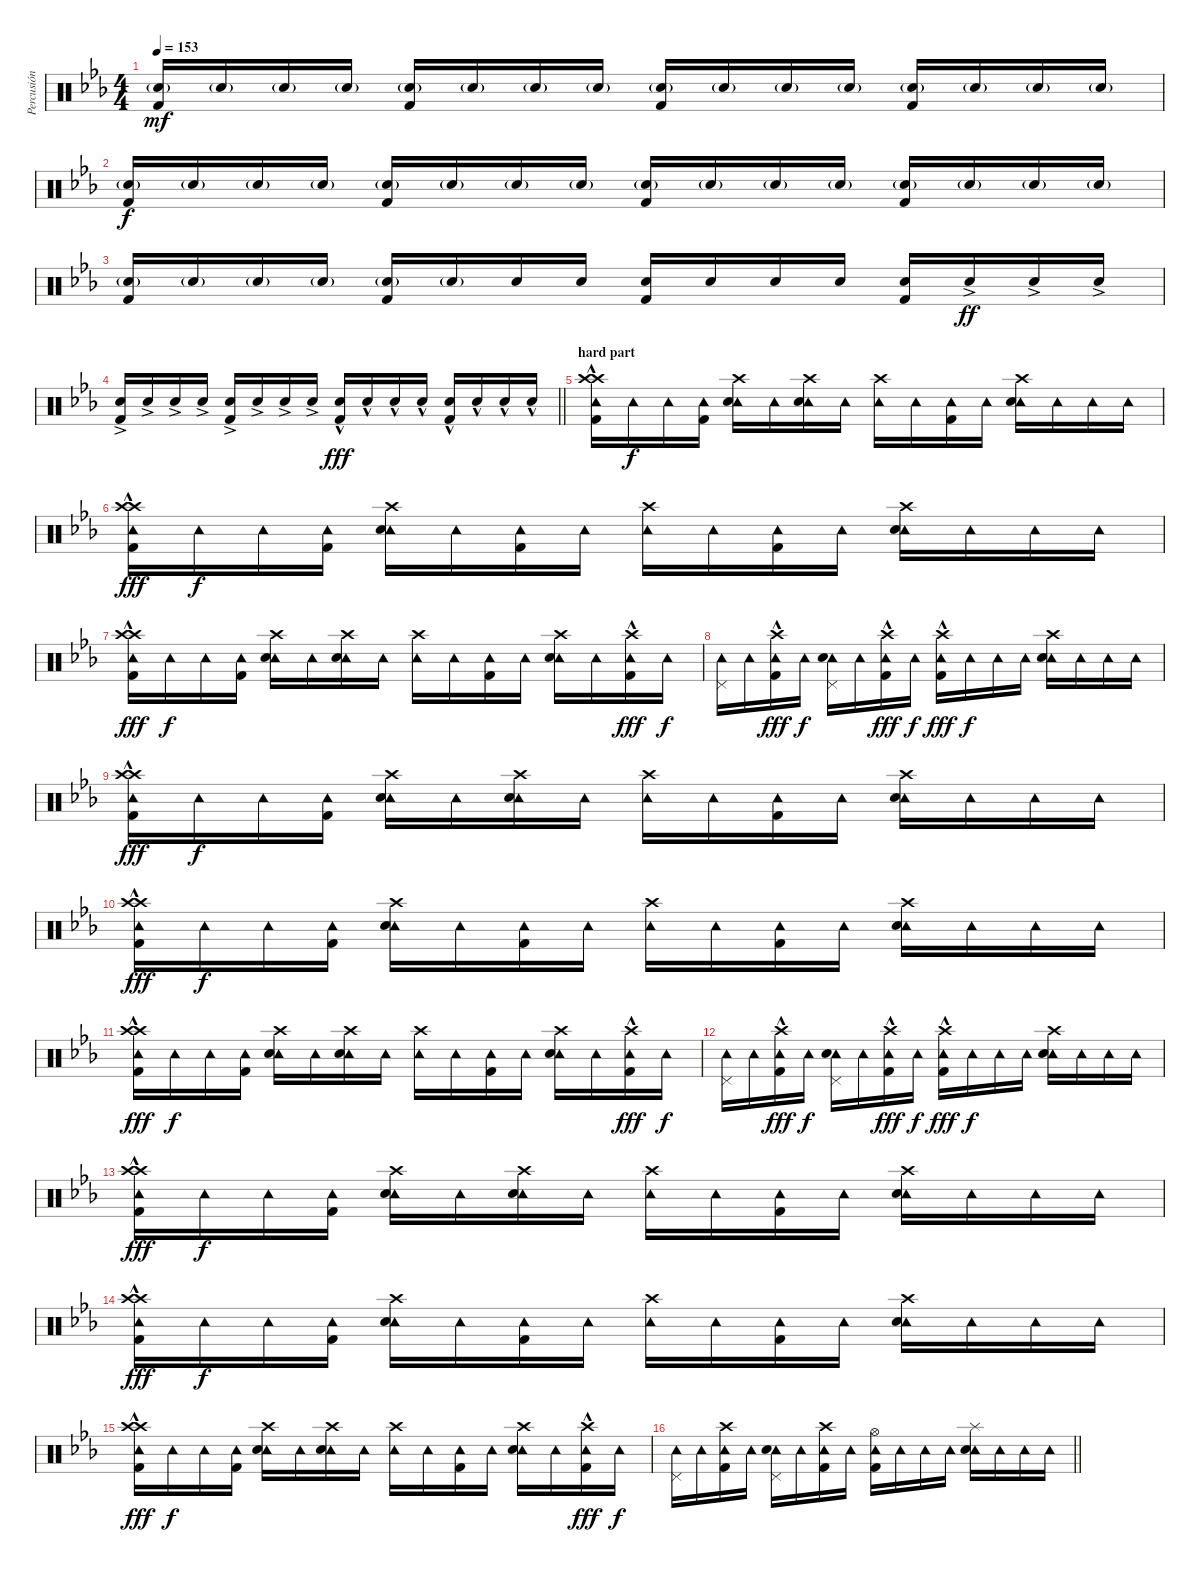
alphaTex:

\track ("Percusión" "Percusión") {instrument percussion}
\staff {score}
\articulation defaults
\ts (4 4)
\tempo 153
\clef neutral
\ks eb
("Snare (hit) 2"{g} "Kick (hit) 2").16{dy mf} "Snare (hit) 2"{g}.16 "Snare (hit) 2"{g}.16 "Snare (hit) 2"{g}.16 ("Snare (hit) 2"{g} "Kick (hit) 2").16 "Snare (hit) 2"{g}.16 "Snare (hit) 2"{g}.16 "Snare (hit) 2"{g}.16 ("Snare (hit) 2"{g} "Kick (hit) 2").16 "Snare (hit) 2"{g}.16 "Snare (hit) 2"{g}.16 "Snare (hit) 2"{g}.16 ("Snare (hit) 2"{g} "Kick (hit) 2").16 "Snare (hit) 2"{g}.16 "Snare (hit) 2"{g}.16 "Snare (hit) 2"{g}.16 |
("Snare (hit) 2"{g} "Kick (hit) 2").16{dy f} "Snare (hit) 2"{g}.16 "Snare (hit) 2"{g}.16 "Snare (hit) 2"{g}.16 ("Snare (hit) 2"{g} "Kick (hit) 2").16 "Snare (hit) 2"{g}.16 "Snare (hit) 2"{g}.16 "Snare (hit) 2"{g}.16 ("Snare (hit) 2"{g} "Kick (hit) 2").16 "Snare (hit) 2"{g}.16 "Snare (hit) 2"{g}.16 "Snare (hit) 2"{g}.16 ("Snare (hit) 2"{g} "Kick (hit) 2").16 "Snare (hit) 2"{g}.16 "Snare (hit) 2"{g}.16 "Snare (hit) 2"{g}.16 |
("Snare (hit) 2"{g} "Kick (hit) 2").16 "Snare (hit) 2"{g}.16 "Snare (hit) 2"{g}.16 "Snare (hit) 2"{g}.16 ("Snare (hit) 2"{g} "Kick (hit) 2").16 "Snare (hit) 2"{g}.16 "Snare (hit) 2".16 "Snare (hit) 2".16 ("Snare (hit) 2" "Kick (hit) 2").16 "Snare (hit) 2".16 "Snare (hit) 2".16 "Snare (hit) 2".16 ("Snare (hit) 2" "Kick (hit) 2").16 "Snare (hit) 2"{ac}.16{dy ff} "Snare (hit) 2"{ac}.16 "Snare (hit) 2"{ac}.16 |
\barLineRight lightlight
("Snare (hit) 2"{ac} "Kick (hit) 2").16 "Snare (hit) 2"{ac}.16 "Snare (hit) 2"{ac}.16 "Snare (hit) 2"{ac}.16 ("Snare (hit) 2"{ac} "Kick (hit) 2").16 "Snare (hit) 2"{ac}.16 "Snare (hit) 2"{ac}.16 "Snare (hit) 2"{ac}.16 ("Snare (hit) 2"{hac} "Kick (hit) 2").16{dy fff} "Snare (hit) 2"{hac}.16 "Snare (hit) 2"{hac}.16 "Snare (hit) 2"{hac}.16 ("Snare (hit) 2"{hac} "Kick (hit) 2").16 "Snare (hit) 2"{hac}.16 "Snare (hit) 2"{hac}.16 "Snare (hit) 2"{hac}.16 |
\section ("" "hard part")
("Tambourine (hit)" "Crash high (hit)"{hac} "Crash high (hit)" "Kick (hit) 2").16 "Tambourine (hit)".16{dy f} "Tambourine (hit)".16 ("Tambourine (hit)" "Kick (hit) 2").16 ("Tambourine (hit)" "Crash high (hit)" "Snare (hit) 2").16 "Tambourine (hit)".16 ("Tambourine (hit)" "Crash high (hit)" "Snare (hit) 2").16 "Tambourine (hit)".16 ("Tambourine (hit)" "Crash high (hit)").16 "Tambourine (hit)".16 ("Tambourine (hit)" "Kick (hit) 2").16 "Tambourine (hit)".16 ("Tambourine (hit)" "Crash high (hit)" "Snare (hit) 2").16 "Tambourine (hit)".16 "Tambourine (hit)".16 "Tambourine (hit)".16 |
("Tambourine (hit)" "Crash high (hit)"{hac} "Crash high (hit)" "Kick (hit) 2").16{dy fff} "Tambourine (hit)".16{dy f} "Tambourine (hit)".16 ("Tambourine (hit)" "Kick (hit) 2").16 ("Tambourine (hit)" "Crash high (hit)" "Snare (hit) 2").16 "Tambourine (hit)".16 ("Tambourine (hit)" "Kick (hit) 2").16 "Tambourine (hit)".16 ("Tambourine (hit)" "Crash high (hit)").16 "Tambourine (hit)".16 ("Tambourine (hit)" "Kick (hit) 2").16 "Tambourine (hit)".16 ("Tambourine (hit)" "Crash high (hit)" "Snare (hit) 2").16 "Tambourine (hit)".16 "Tambourine (hit)".16 "Tambourine (hit)".16 |
("Tambourine (hit)" "Crash high (hit)"{hac} "Crash high (hit)" "Kick (hit) 2").16{dy fff} "Tambourine (hit)".16{dy f} "Tambourine (hit)".16 ("Tambourine (hit)" "Kick (hit) 2").16 ("Tambourine (hit)" "Crash high (hit)" "Snare (hit) 2").16 "Tambourine (hit)".16 ("Tambourine (hit)" "Crash high (hit)" "Snare (hit) 2").16 "Tambourine (hit)".16 ("Tambourine (hit)" "Crash high (hit)").16 "Tambourine (hit)".16 ("Tambourine (hit)" "Kick (hit) 2").16 "Tambourine (hit)".16 ("Tambourine (hit)" "Crash high (hit)" "Snare (hit) 2").16 "Tambourine (hit)".16 ("Tambourine (hit)" "Crash high (hit)"{hac} "Kick (hit) 2").16{dy fff} "Tambourine (hit)".16{dy f} |
("Tambourine (hit)" "Pedal Hi-Hat (hit)").16 "Tambourine (hit)".16 ("Tambourine (hit)" "Crash high (hit)"{hac} "Kick (hit) 2").16{dy fff} "Tambourine (hit)".16{dy f} ("Tambourine (hit)" "Pedal Hi-Hat (hit)" "Snare (hit) 2").16 "Tambourine (hit)".16 ("Tambourine (hit)" "Crash high (hit)"{hac} "Kick (hit) 2").16{dy fff} "Tambourine (hit)".16{dy f} ("Tambourine (hit)" "Crash high (hit)"{hac} "Kick (hit) 2").16{dy fff} "Tambourine (hit)".16{dy f} "Tambourine (hit)".16 "Tambourine (hit)".16 ("Tambourine (hit)" "Crash high (hit)" "Snare (hit) 2").16 "Tambourine (hit)".16 "Tambourine (hit)".16 "Tambourine (hit)".16 |
("Tambourine (hit)" "Crash high (hit)"{hac} "Crash high (hit)" "Kick (hit) 2").16{dy fff} "Tambourine (hit)".16{dy f} "Tambourine (hit)".16 ("Tambourine (hit)" "Kick (hit) 2").16 ("Tambourine (hit)" "Crash high (hit)" "Snare (hit) 2").16 "Tambourine (hit)".16 ("Tambourine (hit)" "Crash high (hit)" "Snare (hit) 2").16 "Tambourine (hit)".16 ("Tambourine (hit)" "Crash high (hit)").16 "Tambourine (hit)".16 ("Tambourine (hit)" "Kick (hit) 2").16 "Tambourine (hit)".16 ("Tambourine (hit)" "Crash high (hit)" "Snare (hit) 2").16 "Tambourine (hit)".16 "Tambourine (hit)".16 "Tambourine (hit)".16 |
("Tambourine (hit)" "Crash high (hit)"{hac} "Crash high (hit)" "Kick (hit) 2").16{dy fff} "Tambourine (hit)".16{dy f} "Tambourine (hit)".16 ("Tambourine (hit)" "Kick (hit) 2").16 ("Tambourine (hit)" "Crash high (hit)" "Snare (hit) 2").16 "Tambourine (hit)".16 ("Tambourine (hit)" "Kick (hit) 2").16 "Tambourine (hit)".16 ("Tambourine (hit)" "Crash high (hit)").16 "Tambourine (hit)".16 ("Tambourine (hit)" "Kick (hit) 2").16 "Tambourine (hit)".16 ("Tambourine (hit)" "Crash high (hit)" "Snare (hit) 2").16 "Tambourine (hit)".16 "Tambourine (hit)".16 "Tambourine (hit)".16 |
("Tambourine (hit)" "Crash high (hit)"{hac} "Crash high (hit)" "Kick (hit) 2").16{dy fff} "Tambourine (hit)".16{dy f} "Tambourine (hit)".16 ("Tambourine (hit)" "Kick (hit) 2").16 ("Tambourine (hit)" "Crash high (hit)" "Snare (hit) 2").16 "Tambourine (hit)".16 ("Tambourine (hit)" "Crash high (hit)" "Snare (hit) 2").16 "Tambourine (hit)".16 ("Tambourine (hit)" "Crash high (hit)").16 "Tambourine (hit)".16 ("Tambourine (hit)" "Kick (hit) 2").16 "Tambourine (hit)".16 ("Tambourine (hit)" "Crash high (hit)" "Snare (hit) 2").16 "Tambourine (hit)".16 ("Tambourine (hit)" "Crash high (hit)"{hac} "Kick (hit) 2").16{dy fff} "Tambourine (hit)".16{dy f} |
("Tambourine (hit)" "Pedal Hi-Hat (hit)").16 "Tambourine (hit)".16 ("Tambourine (hit)" "Crash high (hit)"{hac} "Kick (hit) 2").16{dy fff} "Tambourine (hit)".16{dy f} ("Tambourine (hit)" "Pedal Hi-Hat (hit)" "Snare (hit) 2").16 "Tambourine (hit)".16 ("Tambourine (hit)" "Crash high (hit)"{hac} "Kick (hit) 2").16{dy fff} "Tambourine (hit)".16{dy f} ("Tambourine (hit)" "Crash high (hit)"{hac} "Kick (hit) 2").16{dy fff} "Tambourine (hit)".16{dy f} "Tambourine (hit)".16 "Tambourine (hit)".16 ("Tambourine (hit)" "Crash high (hit)" "Snare (hit) 2").16 "Tambourine (hit)".16 "Tambourine (hit)".16 "Tambourine (hit)".16 |
("Tambourine (hit)" "Crash high (hit)"{hac} "Crash high (hit)" "Kick (hit) 2").16{dy fff} "Tambourine (hit)".16{dy f} "Tambourine (hit)".16 ("Tambourine (hit)" "Kick (hit) 2").16 ("Tambourine (hit)" "Crash high (hit)" "Snare (hit) 2").16 "Tambourine (hit)".16 ("Tambourine (hit)" "Crash high (hit)" "Snare (hit) 2").16 "Tambourine (hit)".16 ("Tambourine (hit)" "Crash high (hit)").16 "Tambourine (hit)".16 ("Tambourine (hit)" "Kick (hit) 2").16 "Tambourine (hit)".16 ("Tambourine (hit)" "Crash high (hit)" "Snare (hit) 2").16 "Tambourine (hit)".16 "Tambourine (hit)".16 "Tambourine (hit)".16 |
("Tambourine (hit)" "Crash high (hit)"{hac} "Crash high (hit)" "Kick (hit) 2").16{dy fff} "Tambourine (hit)".16{dy f} "Tambourine (hit)".16 ("Tambourine (hit)" "Kick (hit) 2").16 ("Tambourine (hit)" "Crash high (hit)" "Snare (hit) 2").16 "Tambourine (hit)".16 ("Tambourine (hit)" "Kick (hit) 2").16 "Tambourine (hit)".16 ("Tambourine (hit)" "Crash high (hit)").16 "Tambourine (hit)".16 ("Tambourine (hit)" "Kick (hit) 2").16 "Tambourine (hit)".16 ("Tambourine (hit)" "Crash high (hit)" "Snare (hit) 2").16 "Tambourine (hit)".16 "Tambourine (hit)".16 "Tambourine (hit)".16 |
("Tambourine (hit)" "Crash high (hit)"{hac} "Crash high (hit)" "Kick (hit) 2").16{dy fff} "Tambourine (hit)".16{dy f} "Tambourine (hit)".16 ("Tambourine (hit)" "Kick (hit) 2").16 ("Tambourine (hit)" "Crash high (hit)" "Snare (hit) 2").16 "Tambourine (hit)".16 ("Tambourine (hit)" "Crash high (hit)" "Snare (hit) 2").16 "Tambourine (hit)".16 ("Tambourine (hit)" "Crash high (hit)").16 "Tambourine (hit)".16 ("Tambourine (hit)" "Kick (hit) 2").16 "Tambourine (hit)".16 ("Tambourine (hit)" "Crash high (hit)" "Snare (hit) 2").16 "Tambourine (hit)".16 ("Tambourine (hit)" "Crash high (hit)"{hac} "Kick (hit) 2").16{dy fff} "Tambourine (hit)".16{dy f} |
\barLineRight lightlight
("Tambourine (hit)" "Pedal Hi-Hat (hit)").16 "Tambourine (hit)".16 ("Tambourine (hit)" "Crash high (hit)" "Kick (hit) 2").16 "Tambourine (hit)".16 ("Tambourine (hit)" "Pedal Hi-Hat (hit)" "Snare (hit) 2").16 "Tambourine (hit)".16 ("Tambourine (hit)" "Crash high (hit)" "Kick (hit) 2").16 "Tambourine (hit)".16 ("Tambourine (hit)" "Hi-Hat (open)" "Kick (hit) 2").16 "Tambourine (hit)".16 "Tambourine (hit)".16 "Tambourine (hit)".16 ("Tambourine (hit)" "Splash (hit)" "Snare (hit) 2").16 "Tambourine (hit)".16 "Tambourine (hit)".16 "Tambourine (hit)".16
